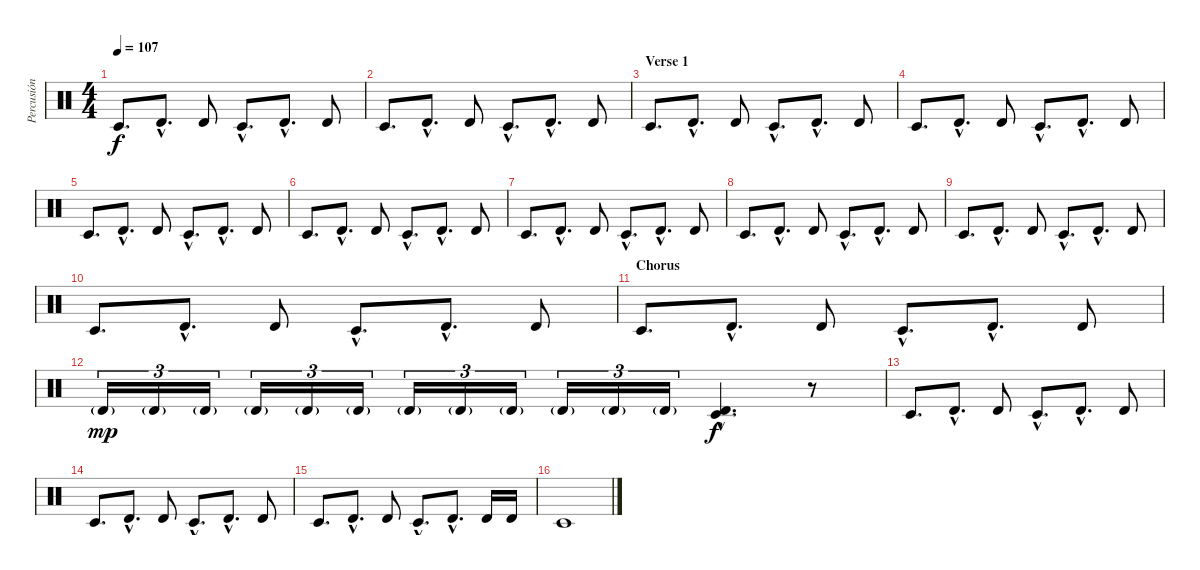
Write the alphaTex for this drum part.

\track ("Percusión" "Percusión") {instrument percussion}
\staff {score}
\articulation defaults
\ts (4 4)
\tempo 107
\clef neutral
\ks c "Timbale low (hit)".8{d dy f} "Timbale high (hit)"{hac}.8{d} "Timbale high (hit)".8 "Timbale low (hit)"{hac}.8{d} "Timbale high (hit)"{hac}.8{d} "Timbale high (hit)".8
|
"Timbale low (hit)".8{d} "Timbale high (hit)"{hac}.8{d} "Timbale high (hit)".8 "Timbale low (hit)"{hac}.8{d} "Timbale high (hit)"{hac}.8{d} "Timbale high (hit)".8 |
\section ("" "Verse 1")
"Timbale low (hit)".8{d} "Timbale high (hit)"{hac}.8{d} "Timbale high (hit)".8 "Timbale low (hit)"{hac}.8{d} "Timbale high (hit)"{hac}.8{d} "Timbale high (hit)".8 |
"Timbale low (hit)".8{d} "Timbale high (hit)"{hac}.8{d} "Timbale high (hit)".8 "Timbale low (hit)"{hac}.8{d} "Timbale high (hit)"{hac}.8{d} "Timbale high (hit)".8 |
"Timbale low (hit)".8{d} "Timbale high (hit)"{hac}.8{d} "Timbale high (hit)".8 "Timbale low (hit)"{hac}.8{d} "Timbale high (hit)"{hac}.8{d} "Timbale high (hit)".8 |
"Timbale low (hit)".8{d} "Timbale high (hit)"{hac}.8{d} "Timbale high (hit)".8 "Timbale low (hit)"{hac}.8{d} "Timbale high (hit)"{hac}.8{d} "Timbale high (hit)".8 |
"Timbale low (hit)".8{d} "Timbale high (hit)"{hac}.8{d} "Timbale high (hit)".8 "Timbale low (hit)"{hac}.8{d} "Timbale high (hit)"{hac}.8{d} "Timbale high (hit)".8 |
"Timbale low (hit)".8{d} "Timbale high (hit)"{hac}.8{d} "Timbale high (hit)".8 "Timbale low (hit)"{hac}.8{d} "Timbale high (hit)"{hac}.8{d} "Timbale high (hit)".8 |
"Timbale low (hit)".8{d} "Timbale high (hit)"{hac}.8{d} "Timbale high (hit)".8 "Timbale low (hit)"{hac}.8{d} "Timbale high (hit)"{hac}.8{d} "Timbale high (hit)".8 |
"Timbale low (hit)".8{d} "Timbale high (hit)"{hac}.8{d} "Timbale high (hit)".8 "Timbale low (hit)"{hac}.8{d} "Timbale high (hit)"{hac}.8{d} "Timbale high (hit)".8 |
\section ("" "Chorus")
"Timbale low (hit)".8{d} "Timbale high (hit)"{hac}.8{d} "Timbale high (hit)".8 "Timbale low (hit)"{hac}.8{d} "Timbale high (hit)"{hac}.8{d} "Timbale high (hit)".8 |
"Timbale high (hit)"{g}.16{tu (3 2) dy mp} "Timbale high (hit)"{g}.16{tu (3 2)} "Timbale high (hit)"{g}.16{tu (3 2)} "Timbale high (hit)"{g}.16{tu (3 2)} "Timbale high (hit)"{g}.16{tu (3 2)} "Timbale high (hit)"{g}.16{tu (3 2)} "Timbale high (hit)"{g}.16{tu (3 2)} "Timbale high (hit)"{g}.16{tu (3 2)} "Timbale high (hit)"{g}.16{tu (3 2)} "Timbale high (hit)"{g}.16{tu (3 2)} "Timbale high (hit)"{g}.16{tu (3 2)} "Timbale high (hit)"{g}.16{tu (3 2)} ("Timbale low (hit)"{hac} "Timbale high (hit)"{hac}).4{d dy f} r.8 |
"Timbale low (hit)".8{d} "Timbale high (hit)"{hac}.8{d} "Timbale high (hit)".8 "Timbale low (hit)"{hac}.8{d} "Timbale high (hit)"{hac}.8{d} "Timbale high (hit)".8 |
"Timbale low (hit)".8{d} "Timbale high (hit)"{hac}.8{d} "Timbale high (hit)".8 "Timbale low (hit)"{hac}.8{d} "Timbale high (hit)"{hac}.8{d} "Timbale high (hit)".8 |
"Timbale low (hit)".8{d} "Timbale high (hit)"{hac}.8{d} "Timbale high (hit)".8 "Timbale low (hit)"{hac}.8{d} "Timbale high (hit)"{hac}.8{d} "Timbale high (hit)".16 "Timbale high (hit)".16 |
"Timbale low (hit)".1
